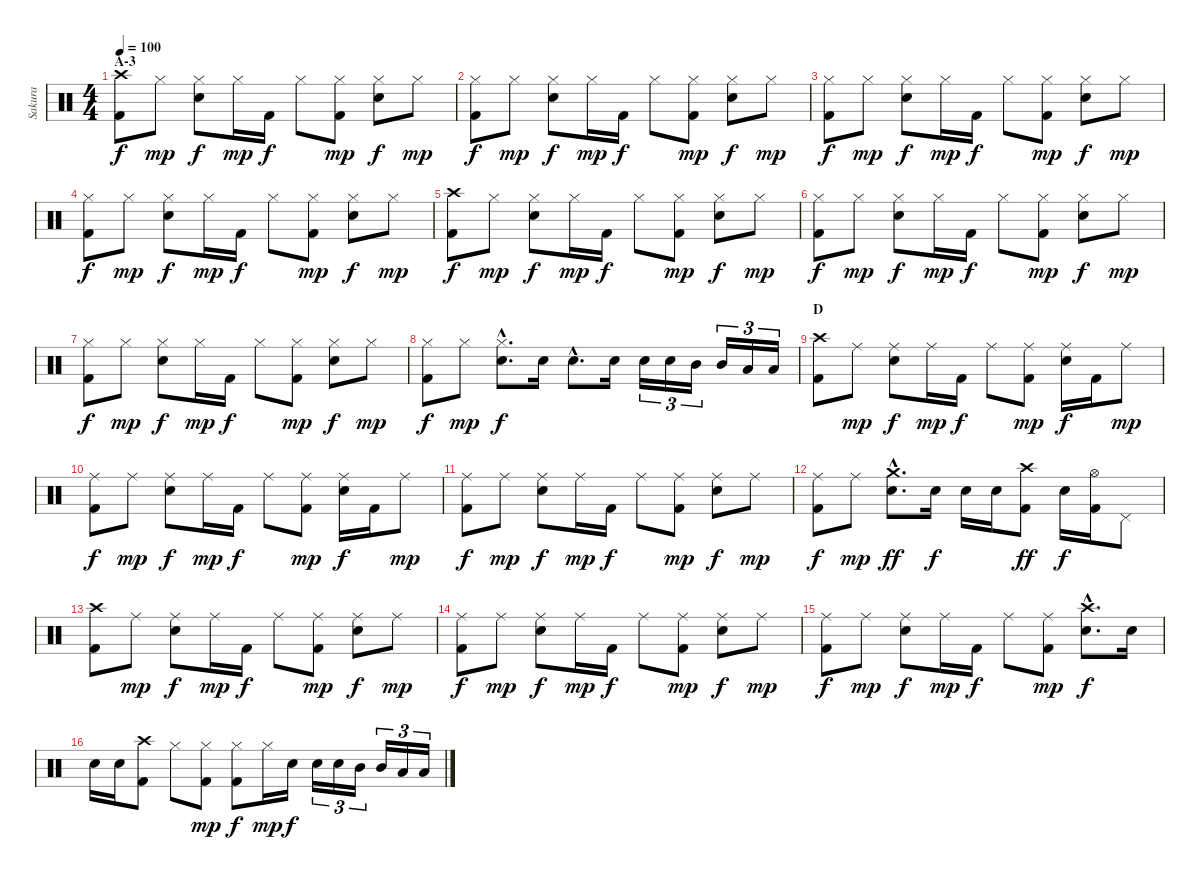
\track ("Sakura" "Sakura") {instrument percussion}
\staff {score}
\articulation defaults
\ts (4 4)
\section ("" "A-3")
\tempo 100
\clef neutral
\ks c
("Crash high (hit)" "Kick (hit) 2").8{dy f} "Hi-Hat (closed)".8{dy mp} ("Hi-Hat (closed)" "Electric Snare (hit)").8{dy f} "Hi-Hat (closed)".16{dy mp} "Kick (hit) 2".16{dy f} "Hi-Hat (closed)".8 ("Hi-Hat (closed)" "Kick (hit) 2").8{dy mp} ("Hi-Hat (closed)" "Electric Snare (hit)").8{dy f} "Hi-Hat (closed)".8{dy mp} |
("Hi-Hat (closed)" "Kick (hit) 2").8{dy f} "Hi-Hat (closed)".8{dy mp} ("Hi-Hat (closed)" "Electric Snare (hit)").8{dy f} "Hi-Hat (closed)".16{dy mp} "Kick (hit) 2".16{dy f} "Hi-Hat (closed)".8 ("Hi-Hat (closed)" "Kick (hit) 2").8{dy mp} ("Hi-Hat (closed)" "Electric Snare (hit)").8{dy f} "Hi-Hat (closed)".8{dy mp} |
("Hi-Hat (closed)" "Kick (hit) 2").8{dy f} "Hi-Hat (closed)".8{dy mp} ("Hi-Hat (closed)" "Electric Snare (hit)").8{dy f} "Hi-Hat (closed)".16{dy mp} "Kick (hit) 2".16{dy f} "Hi-Hat (closed)".8 ("Hi-Hat (closed)" "Kick (hit) 2").8{dy mp} ("Hi-Hat (closed)" "Electric Snare (hit)").8{dy f} "Hi-Hat (closed)".8{dy mp} |
("Hi-Hat (closed)" "Kick (hit) 2").8{dy f} "Hi-Hat (closed)".8{dy mp} ("Hi-Hat (closed)" "Electric Snare (hit)").8{dy f} "Hi-Hat (closed)".16{dy mp} "Kick (hit) 2".16{dy f} "Hi-Hat (closed)".8 ("Hi-Hat (closed)" "Kick (hit) 2").8{dy mp} ("Hi-Hat (closed)" "Electric Snare (hit)").8{dy f} "Hi-Hat (closed)".8{dy mp} |
("Crash high (hit)" "Kick (hit) 2").8{dy f} "Hi-Hat (closed)".8{dy mp} ("Hi-Hat (closed)" "Electric Snare (hit)").8{dy f} "Hi-Hat (closed)".16{dy mp} "Kick (hit) 2".16{dy f} "Hi-Hat (closed)".8 ("Hi-Hat (closed)" "Kick (hit) 2").8{dy mp} ("Hi-Hat (closed)" "Electric Snare (hit)").8{dy f} "Hi-Hat (closed)".8{dy mp} |
("Hi-Hat (closed)" "Kick (hit) 2").8{dy f} "Hi-Hat (closed)".8{dy mp} ("Hi-Hat (closed)" "Electric Snare (hit)").8{dy f} "Hi-Hat (closed)".16{dy mp} "Kick (hit) 2".16{dy f} "Hi-Hat (closed)".8 ("Hi-Hat (closed)" "Kick (hit) 2").8{dy mp} ("Hi-Hat (closed)" "Electric Snare (hit)").8{dy f} "Hi-Hat (closed)".8{dy mp} |
("Hi-Hat (closed)" "Kick (hit) 2").8{dy f} "Hi-Hat (closed)".8{dy mp} ("Hi-Hat (closed)" "Electric Snare (hit)").8{dy f} "Hi-Hat (closed)".16{dy mp} "Kick (hit) 2".16{dy f} "Hi-Hat (closed)".8 ("Hi-Hat (closed)" "Kick (hit) 2").8{dy mp} ("Hi-Hat (closed)" "Electric Snare (hit)").8{dy f} "Hi-Hat (closed)".8{dy mp} |
("Hi-Hat (closed)" "Kick (hit) 2").8{dy f} "Hi-Hat (closed)".8{dy mp} ("Hi-Hat (closed)"{hac} "Electric Snare (hit)"{hac}).8{d dy f} "Electric Snare (hit)".16 "Electric Snare (hit)"{hac}.8{d} "Electric Snare (hit)".16 "Electric Snare (hit)".16{tu (3 2)} "Electric Snare (hit)".16{tu (3 2)} "Mid Tom (hit)".16{tu (3 2)} "Mid Tom (hit)".16{tu (3 2)} "Low Tom (hit)".16{tu (3 2)} "Low Tom (hit)".16{tu (3 2)} |
\section ("" "D")
("Crash high (hit)" "Kick (hit) 2").8 "Ride (middle)".8{dy mp} ("Ride (middle)" "Electric Snare (hit)").8{dy f} "Ride (middle)".16{dy mp} "Kick (hit) 2".16{dy f} "Ride (middle)".8 ("Ride (middle)" "Kick (hit) 2").8{dy mp} ("Ride (middle)" "Electric Snare (hit)").16{dy f} "Kick (hit) 2".16 "Ride (middle)".8{dy mp} |
("Ride (middle)" "Kick (hit) 2").8{dy f} "Ride (middle)".8{dy mp} ("Ride (middle)" "Electric Snare (hit)").8{dy f} "Ride (middle)".16{dy mp} "Kick (hit) 2".16{dy f} "Ride (middle)".8 ("Ride (middle)" "Kick (hit) 2").8{dy mp} ("Ride (middle)" "Electric Snare (hit)").16{dy f} "Kick (hit) 2".16 "Ride (middle)".8{dy mp} |
("Ride (middle)" "Kick (hit) 2").8{dy f} "Ride (middle)".8{dy mp} ("Ride (middle)" "Electric Snare (hit)").8{dy f} "Ride (middle)".16{dy mp} "Kick (hit) 2".16{dy f} "Ride (middle)".8 ("Ride (middle)" "Kick (hit) 2").8{dy mp} ("Ride (middle)" "Electric Snare (hit)").8{dy f} "Ride (middle)".8{dy mp} |
("Ride (middle)" "Kick (hit) 2").8{dy f} "Ride (middle)".8{dy mp} ("Crash medium (hit)"{hac} "Electric Snare (hit)"{hac}).8{d dy ff} "Electric Snare (hit)".16{dy f} "Electric Snare (hit)".16 "Electric Snare (hit)".16 ("Crash high (hit)" "Kick (hit) 2").8{dy ff} "Electric Snare (hit)".16{dy f} ("Hi-Hat (open)" "Kick (hit) 2").16 "Pedal Hi-Hat (hit)".8 |
("Crash high (hit)" "Kick (hit) 2").8 "Ride (middle)".8{dy mp} ("Ride (middle)" "Electric Snare (hit)").8{dy f} "Ride (middle)".16{dy mp} "Kick (hit) 2".16{dy f} "Ride (middle)".8 ("Ride (middle)" "Kick (hit) 2").8{dy mp} ("Ride (middle)" "Electric Snare (hit)").8{dy f} "Ride (middle)".8{dy mp} |
("Ride (middle)" "Kick (hit) 2").8{dy f} "Ride (middle)".8{dy mp} ("Ride (middle)" "Electric Snare (hit)").8{dy f} "Ride (middle)".16{dy mp} "Kick (hit) 2".16{dy f} "Ride (middle)".8 ("Ride (middle)" "Kick (hit) 2").8{dy mp} ("Ride (middle)" "Electric Snare (hit)").8{dy f} "Ride (middle)".8{dy mp} |
("Ride (middle)" "Kick (hit) 2").8{dy f} "Ride (middle)".8{dy mp} ("Ride (middle)" "Electric Snare (hit)").8{dy f} "Ride (middle)".16{dy mp} "Kick (hit) 2".16{dy f} "Ride (middle)".8 ("Ride (middle)" "Kick (hit) 2").8{dy mp} ("Crash high (hit)"{hac} "Electric Snare (hit)"{hac}).8{d dy f} "Electric Snare (hit)".16 |
"Electric Snare (hit)".16 "Electric Snare (hit)".16 ("Crash high (hit)" "Kick (hit) 2").8 "Hi-Hat (closed)".8 ("Hi-Hat (closed)" "Kick (hit) 2").8{dy mp} ("Hi-Hat (closed)" "Kick (hit) 2").8{dy f} "Hi-Hat (closed)".16{dy mp} "Electric Snare (hit)".16{dy f} "Electric Snare (hit)".16{tu (3 2)} "Electric Snare (hit)".16{tu (3 2)} "Mid Tom (hit)".16{tu (3 2)} "Mid Tom (hit)".16{tu (3 2)} "Low Tom (hit)".16{tu (3 2)} "Low Tom (hit)".16{tu (3 2)}
